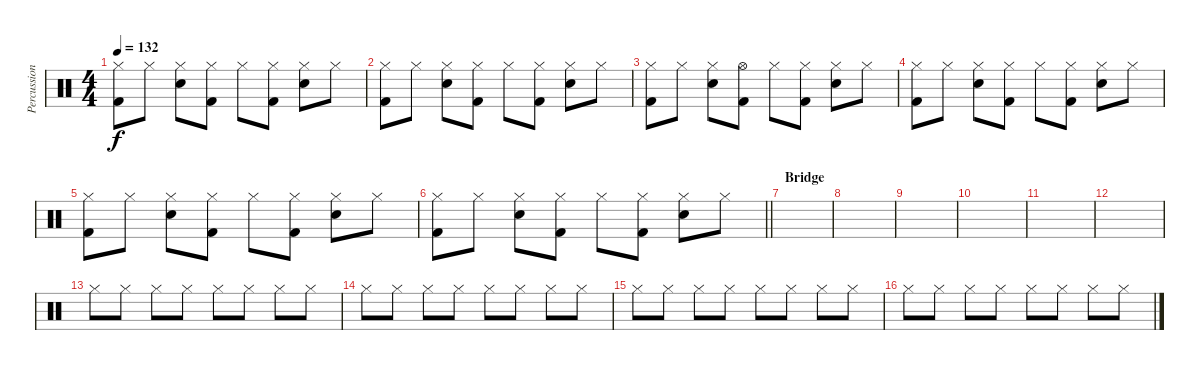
\track ("Percussions" "Percussion") {instrument percussion}
\staff {score}
\articulation defaults
\ts (4 4)
\tempo 132
\clef neutral
\ks c
("Hi-Hat (closed)" "Kick (hit) 2").8{dy f} "Hi-Hat (closed)".8 ("Hi-Hat (closed)" "Electric Snare (hit)").8 ("Hi-Hat (closed)" "Kick (hit) 2").8 "Hi-Hat (closed)".8 ("Hi-Hat (closed)" "Kick (hit) 2").8 ("Hi-Hat (closed)" "Electric Snare (hit)").8 "Hi-Hat (closed)".8 |
("Hi-Hat (closed)" "Kick (hit) 2").8 "Hi-Hat (closed)".8 ("Hi-Hat (closed)" "Electric Snare (hit)").8 ("Hi-Hat (closed)" "Kick (hit) 2").8 "Hi-Hat (closed)".8 ("Hi-Hat (closed)" "Kick (hit) 2").8 ("Hi-Hat (closed)" "Electric Snare (hit)").8 "Hi-Hat (closed)".8 |
("Hi-Hat (closed)" "Kick (hit) 2").8 "Hi-Hat (closed)".8 ("Hi-Hat (closed)" "Electric Snare (hit)").8 ("Hi-Hat (open)" "Kick (hit) 2").8 "Hi-Hat (closed)".8 ("Hi-Hat (closed)" "Kick (hit) 2").8 ("Hi-Hat (closed)" "Electric Snare (hit)").8 "Hi-Hat (closed)".8 |
("Hi-Hat (closed)" "Kick (hit) 2").8 "Hi-Hat (closed)".8 ("Hi-Hat (closed)" "Electric Snare (hit)").8 ("Hi-Hat (closed)" "Kick (hit) 2").8 "Hi-Hat (closed)".8 ("Hi-Hat (closed)" "Kick (hit) 2").8 ("Hi-Hat (closed)" "Electric Snare (hit)").8 "Hi-Hat (closed)".8 |
("Hi-Hat (closed)" "Kick (hit) 2").8 "Hi-Hat (closed)".8 ("Hi-Hat (closed)" "Electric Snare (hit)").8 ("Hi-Hat (closed)" "Kick (hit) 2").8 "Hi-Hat (closed)".8 ("Hi-Hat (closed)" "Kick (hit) 2").8 ("Hi-Hat (closed)" "Electric Snare (hit)").8 "Hi-Hat (closed)".8 |
\barLineRight lightlight
("Hi-Hat (closed)" "Kick (hit) 2").8 "Hi-Hat (closed)".8 ("Hi-Hat (closed)" "Electric Snare (hit)").8 ("Hi-Hat (closed)" "Kick (hit) 2").8 "Hi-Hat (closed)".8 ("Hi-Hat (closed)" "Kick (hit) 2").8 ("Hi-Hat (closed)" "Electric Snare (hit)").8 "Hi-Hat (closed)".8 |
\section ("" "Bridge")
|
|
|
|
|
|
"Hi-Hat (closed)".8{volume 8} "Hi-Hat (closed)".8 "Hi-Hat (closed)".8 "Hi-Hat (closed)".8 "Hi-Hat (closed)".8 "Hi-Hat (closed)".8 "Hi-Hat (closed)".8 "Hi-Hat (closed)".8 |
"Hi-Hat (closed)".8 "Hi-Hat (closed)".8 "Hi-Hat (closed)".8 "Hi-Hat (closed)".8 "Hi-Hat (closed)".8 "Hi-Hat (closed)".8 "Hi-Hat (closed)".8 "Hi-Hat (closed)".8 |
"Hi-Hat (closed)".8 "Hi-Hat (closed)".8 "Hi-Hat (closed)".8 "Hi-Hat (closed)".8 "Hi-Hat (closed)".8 "Hi-Hat (closed)".8 "Hi-Hat (closed)".8 "Hi-Hat (closed)".8 |
"Hi-Hat (closed)".8 "Hi-Hat (closed)".8 "Hi-Hat (closed)".8 "Hi-Hat (closed)".8 "Hi-Hat (closed)".8 "Hi-Hat (closed)".8 "Hi-Hat (closed)".8 "Hi-Hat (closed)".8
